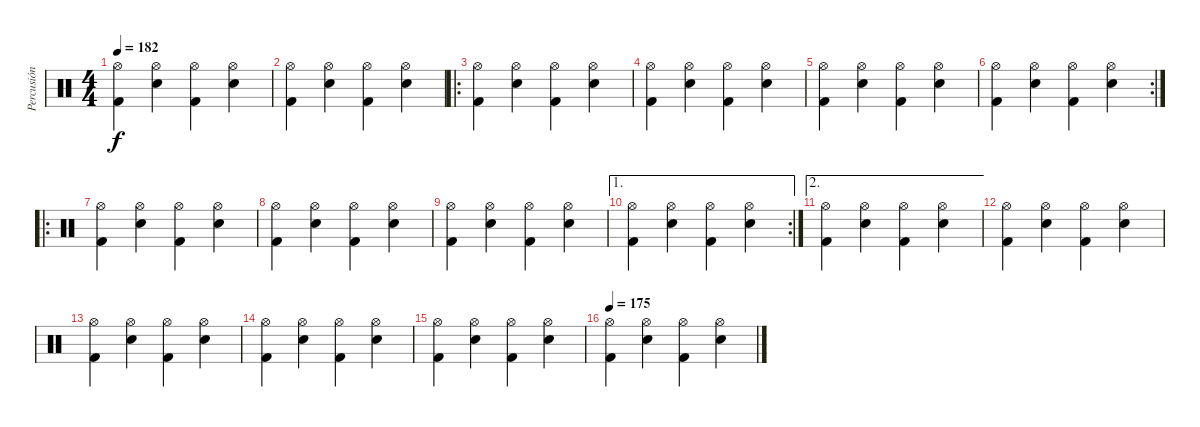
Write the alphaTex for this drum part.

\track ("Percusión" "Percusión") {instrument percussion}
\staff {score}
\articulation defaults
\ts (4 4)
\tempo 182
\clef neutral
\ks c
("Kick (hit) 2" "Hi-Hat (open)").4{dy f} ("Electric Snare (hit)" "Hi-Hat (open)").4 ("Kick (hit) 2" "Hi-Hat (open)").4 ("Electric Snare (hit)" "Hi-Hat (open)").4 |
("Kick (hit) 2" "Hi-Hat (open)").4 ("Electric Snare (hit)" "Hi-Hat (open)").4 ("Kick (hit) 2" "Hi-Hat (open)").4 ("Electric Snare (hit)" "Hi-Hat (open)").4 |
\ro
("Kick (hit) 2" "Hi-Hat (open)").4 ("Electric Snare (hit)" "Hi-Hat (open)").4 ("Kick (hit) 2" "Hi-Hat (open)").4 ("Electric Snare (hit)" "Hi-Hat (open)").4 |
("Kick (hit) 2" "Hi-Hat (open)").4 ("Electric Snare (hit)" "Hi-Hat (open)").4 ("Kick (hit) 2" "Hi-Hat (open)").4 ("Electric Snare (hit)" "Hi-Hat (open)").4 |
("Kick (hit) 2" "Hi-Hat (open)").4 ("Electric Snare (hit)" "Hi-Hat (open)").4 ("Kick (hit) 2" "Hi-Hat (open)").4 ("Electric Snare (hit)" "Hi-Hat (open)").4 |
\rc 2
("Kick (hit) 2" "Hi-Hat (open)").4 ("Electric Snare (hit)" "Hi-Hat (open)").4 ("Kick (hit) 2" "Hi-Hat (open)").4 ("Electric Snare (hit)" "Hi-Hat (open)").4 |
\ro
("Kick (hit) 2" "Hi-Hat (open)").4 ("Electric Snare (hit)" "Hi-Hat (open)").4 ("Kick (hit) 2" "Hi-Hat (open)").4 ("Electric Snare (hit)" "Hi-Hat (open)").4 |
("Kick (hit) 2" "Hi-Hat (open)").4 ("Electric Snare (hit)" "Hi-Hat (open)").4 ("Kick (hit) 2" "Hi-Hat (open)").4 ("Electric Snare (hit)" "Hi-Hat (open)").4 |
("Kick (hit) 2" "Hi-Hat (open)").4 ("Electric Snare (hit)" "Hi-Hat (open)").4 ("Kick (hit) 2" "Hi-Hat (open)").4 ("Electric Snare (hit)" "Hi-Hat (open)").4 |
\ae 1
\rc 2
("Kick (hit) 2" "Hi-Hat (open)").4 ("Electric Snare (hit)" "Hi-Hat (open)").4 ("Kick (hit) 2" "Hi-Hat (open)").4 ("Electric Snare (hit)" "Hi-Hat (open)").4 |
\ae 2
("Kick (hit) 2" "Hi-Hat (open)").4 ("Electric Snare (hit)" "Hi-Hat (open)").4 ("Kick (hit) 2" "Hi-Hat (open)").4 ("Electric Snare (hit)" "Hi-Hat (open)").4 |
("Kick (hit) 2" "Hi-Hat (open)").4 ("Electric Snare (hit)" "Hi-Hat (open)").4 ("Kick (hit) 2" "Hi-Hat (open)").4 ("Electric Snare (hit)" "Hi-Hat (open)").4 |
("Kick (hit) 2" "Hi-Hat (open)").4 ("Electric Snare (hit)" "Hi-Hat (open)").4 ("Kick (hit) 2" "Hi-Hat (open)").4 ("Electric Snare (hit)" "Hi-Hat (open)").4 |
("Kick (hit) 2" "Hi-Hat (open)").4 ("Electric Snare (hit)" "Hi-Hat (open)").4 ("Kick (hit) 2" "Hi-Hat (open)").4 ("Electric Snare (hit)" "Hi-Hat (open)").4 |
("Kick (hit) 2" "Hi-Hat (open)").4 ("Electric Snare (hit)" "Hi-Hat (open)").4 ("Kick (hit) 2" "Hi-Hat (open)").4 ("Electric Snare (hit)" "Hi-Hat (open)").4 |
\tempo 175
("Kick (hit) 2" "Hi-Hat (open)").4 ("Electric Snare (hit)" "Hi-Hat (open)").4 ("Kick (hit) 2" "Hi-Hat (open)").4 ("Electric Snare (hit)" "Hi-Hat (open)").4
